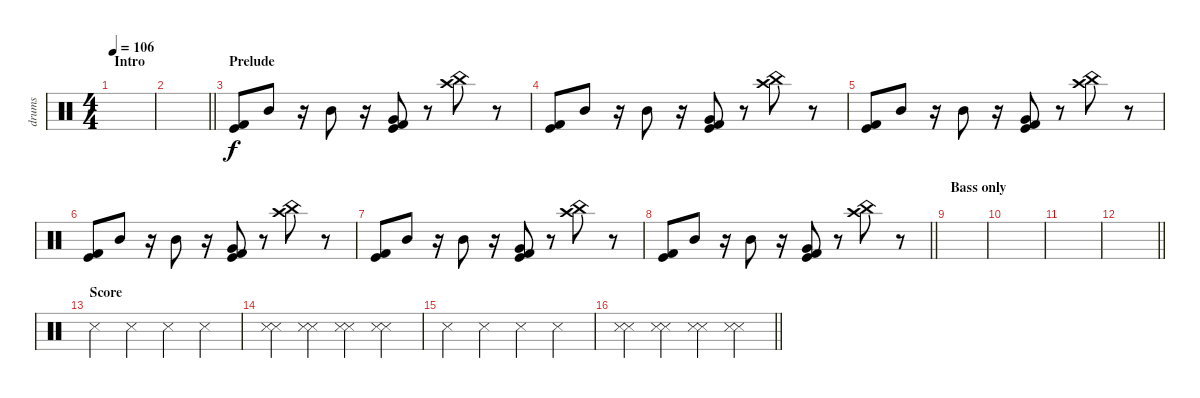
\track ("drums" "drums") {instrument percussion}
\staff {score}
\articulation defaults
\ts (4 4)
\section ("" "Intro")
\tempo 106
\clef neutral
\ks c
|
\barLineRight lightlight
|
\section ("" "Prelude")
("Kick (hit) 2" "Kick (hit)").8 "Mid Tom (hit)".8 r.16 "Mid Tom (hit)".8 r.16 ("Very Low Tom (hit)" "Kick (hit) 2" "Kick (hit)").8 r.8 ("Crash high (hit)" "China (hit)").8 r.8 |
("Kick (hit) 2" "Kick (hit)").8 "Mid Tom (hit)".8 r.16 "Mid Tom (hit)".8 r.16 ("Very Low Tom (hit)" "Kick (hit) 2" "Kick (hit)").8 r.8 ("Crash high (hit)" "China (hit)").8 r.8 |
("Kick (hit) 2" "Kick (hit)").8 "Mid Tom (hit)".8 r.16 "Mid Tom (hit)".8 r.16 ("Very Low Tom (hit)" "Kick (hit) 2" "Kick (hit)").8 r.8 ("Crash high (hit)" "China (hit)").8 r.8 |
("Kick (hit) 2" "Kick (hit)").8 "Mid Tom (hit)".8 r.16 "Mid Tom (hit)".8 r.16 ("Very Low Tom (hit)" "Kick (hit) 2" "Kick (hit)").8 r.8 ("Crash high (hit)" "China (hit)").8 r.8 |
("Kick (hit) 2" "Kick (hit)").8 "Mid Tom (hit)".8 r.16 "Mid Tom (hit)".8 r.16 ("Very Low Tom (hit)" "Kick (hit) 2" "Kick (hit)").8 r.8 ("Crash high (hit)" "China (hit)").8 r.8 |
\barLineRight lightlight
("Kick (hit) 2" "Kick (hit)").8 "Mid Tom (hit)".8 r.16 "Mid Tom (hit)".8 r.16 ("Very Low Tom (hit)" "Kick (hit) 2" "Kick (hit)").8 r.8 ("Crash high (hit)" "China (hit)").8 r.8 |
\section ("" "Bass only")
|
|
|
\barLineRight lightlight
|
\section ("" "Score")
"Snare (side stick) 3".4 "Snare (side stick) 3".4 "Snare (side stick) 3".4 "Snare (side stick) 3".4 |
("Snare (side stick) 3" "Snare (side stick) 3").4 ("Snare (side stick) 3" "Snare (side stick) 3").4 ("Snare (side stick) 3" "Snare (side stick) 3").4 ("Snare (side stick) 3" "Snare (side stick) 3").4 |
"Snare (side stick) 3".4 "Snare (side stick) 3".4 "Snare (side stick) 3".4 "Snare (side stick) 3".4 |
\barLineRight lightlight
("Snare (side stick) 3" "Snare (side stick) 3").4 ("Snare (side stick) 3" "Snare (side stick) 3").4 ("Snare (side stick) 3" "Snare (side stick) 3").4 ("Snare (side stick) 3" "Snare (side stick) 3").4
